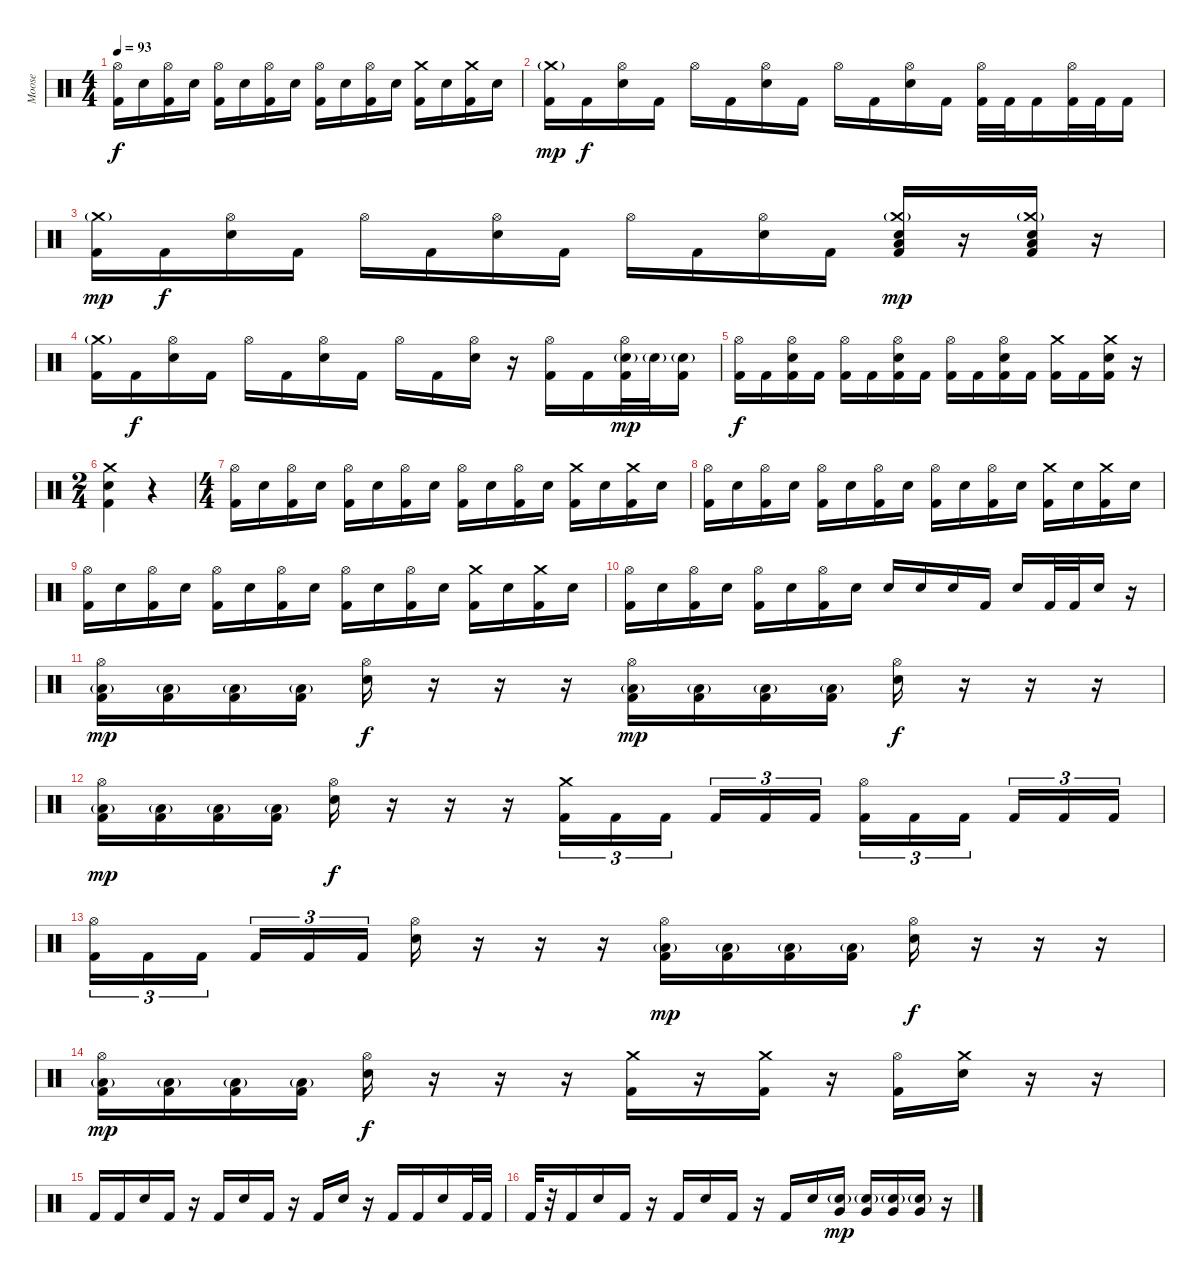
\track ("Moose" "Moose") {instrument percussion}
\staff {score}
\articulation defaults
\ts (4 4)
\tempo 93
\clef neutral
\ks c
("Hi-Hat (open)" "Kick (hit) 2").16{dy f} "Electric Snare (hit)".16 ("Hi-Hat (open)" "Kick (hit) 2").16 "Electric Snare (hit)".16 ("Hi-Hat (open)" "Kick (hit) 2").16 "Electric Snare (hit)".16 ("Hi-Hat (open)" "Kick (hit) 2").16 "Electric Snare (hit)".16 ("Hi-Hat (open)" "Kick (hit) 2").16 "Electric Snare (hit)".16 ("Hi-Hat (open)" "Kick (hit) 2").16 "Electric Snare (hit)".16 ("Crash medium (hit)" "Kick (hit) 2").16 "Electric Snare (hit)".16 ("Crash medium (hit)" "Kick (hit) 2").16 "Electric Snare (hit)".16 |
("Crash medium (hit)"{g} "Kick (hit) 2").16{dy mp} "Kick (hit) 2".16{dy f} ("Hi-Hat (open)" "Electric Snare (hit)").16 "Kick (hit) 2".16 "Hi-Hat (open)".16 "Kick (hit) 2".16 ("Hi-Hat (open)" "Electric Snare (hit)").16 "Kick (hit) 2".16 "Hi-Hat (open)".16 "Kick (hit) 2".16 ("Hi-Hat (open)" "Electric Snare (hit)").16 "Kick (hit) 2".16 ("Hi-Hat (open)" "Kick (hit) 2").32 "Kick (hit) 2".32 "Kick (hit) 2".16 ("Hi-Hat (open)" "Kick (hit) 2").32 "Kick (hit) 2".32 "Kick (hit) 2".16 |
("Crash medium (hit)"{g} "Kick (hit) 2").16{dy mp} "Kick (hit) 2".16{dy f} ("Hi-Hat (open)" "Electric Snare (hit)").16 "Kick (hit) 2".16 "Hi-Hat (open)".16 "Kick (hit) 2".16 ("Hi-Hat (open)" "Electric Snare (hit)").16 "Kick (hit) 2".16 "Hi-Hat (open)".16 "Kick (hit) 2".16 ("Hi-Hat (open)" "Electric Snare (hit)").16 "Kick (hit) 2".16 ("Crash medium (hit)"{g} "Low Floor Tom (hit)" "Electric Snare (hit)" "Kick (hit) 2").16{dy mp} r.16 ("Crash medium (hit)"{g} "Low Floor Tom (hit)" "Electric Snare (hit)" "Kick (hit) 2").16 r.16 |
("Crash medium (hit)"{g} "Kick (hit) 2").16 "Kick (hit) 2".16{dy f} ("Hi-Hat (open)" "Electric Snare (hit)").16 "Kick (hit) 2".16 "Hi-Hat (open)".16 "Kick (hit) 2".16 ("Hi-Hat (open)" "Electric Snare (hit)").16 "Kick (hit) 2".16 "Hi-Hat (open)".16 "Kick (hit) 2".16 ("Hi-Hat (open)" "Electric Snare (hit)").16 r.16 ("Hi-Hat (open)" "Kick (hit) 2").16 "Kick (hit) 2".16 ("Hi-Hat (open)" "Electric Snare (hit)"{g} "Kick (hit) 2").32{dy mp} "Electric Snare (hit)"{g}.32 ("Electric Snare (hit)"{g} "Kick (hit) 2").16 |
("Hi-Hat (open)" "Kick (hit) 2").16{dy f} "Kick (hit) 2".16 ("Hi-Hat (open)" "Electric Snare (hit)" "Kick (hit) 2").16 "Kick (hit) 2".16 ("Hi-Hat (open)" "Kick (hit) 2").16 "Kick (hit) 2".16 ("Hi-Hat (open)" "Electric Snare (hit)" "Kick (hit) 2").16 "Kick (hit) 2".16 ("Hi-Hat (open)" "Kick (hit) 2").16 "Kick (hit) 2".16 ("Hi-Hat (open)" "Electric Snare (hit)" "Kick (hit) 2").16 "Kick (hit) 2".16 ("Crash medium (hit)" "Kick (hit) 2").16 "Kick (hit) 2".16 ("Crash medium (hit)" "Electric Snare (hit)" "Kick (hit) 2").16 r.16 |
\ts (2 4)
("Crash medium (hit)" "Electric Snare (hit)" "Kick (hit) 2").4 r.4 |
\ts (4 4)
("Hi-Hat (open)" "Kick (hit) 2").16 "Electric Snare (hit)".16 ("Hi-Hat (open)" "Kick (hit) 2").16 "Electric Snare (hit)".16 ("Hi-Hat (open)" "Kick (hit) 2").16 "Electric Snare (hit)".16 ("Hi-Hat (open)" "Kick (hit) 2").16 "Electric Snare (hit)".16 ("Hi-Hat (open)" "Kick (hit) 2").16 "Electric Snare (hit)".16 ("Hi-Hat (open)" "Kick (hit) 2").16 "Electric Snare (hit)".16 ("Crash medium (hit)" "Kick (hit) 2").16 "Electric Snare (hit)".16 ("Crash medium (hit)" "Kick (hit) 2").16 "Electric Snare (hit)".16 |
("Hi-Hat (open)" "Kick (hit) 2").16 "Electric Snare (hit)".16 ("Hi-Hat (open)" "Kick (hit) 2").16 "Electric Snare (hit)".16 ("Hi-Hat (open)" "Kick (hit) 2").16 "Electric Snare (hit)".16 ("Hi-Hat (open)" "Kick (hit) 2").16 "Electric Snare (hit)".16 ("Hi-Hat (open)" "Kick (hit) 2").16 "Electric Snare (hit)".16 ("Hi-Hat (open)" "Kick (hit) 2").16 "Electric Snare (hit)".16 ("Crash medium (hit)" "Kick (hit) 2").16 "Electric Snare (hit)".16 ("Crash medium (hit)" "Kick (hit) 2").16 "Electric Snare (hit)".16 |
("Hi-Hat (open)" "Kick (hit) 2").16 "Electric Snare (hit)".16 ("Hi-Hat (open)" "Kick (hit) 2").16 "Electric Snare (hit)".16 ("Hi-Hat (open)" "Kick (hit) 2").16 "Electric Snare (hit)".16 ("Hi-Hat (open)" "Kick (hit) 2").16 "Electric Snare (hit)".16 ("Hi-Hat (open)" "Kick (hit) 2").16 "Electric Snare (hit)".16 ("Hi-Hat (open)" "Kick (hit) 2").16 "Electric Snare (hit)".16 ("Crash medium (hit)" "Kick (hit) 2").16 "Electric Snare (hit)".16 ("Crash medium (hit)" "Kick (hit) 2").16 "Electric Snare (hit)".16 |
("Hi-Hat (open)" "Kick (hit) 2").16 "Electric Snare (hit)".16 ("Hi-Hat (open)" "Kick (hit) 2").16 "Electric Snare (hit)".16 ("Hi-Hat (open)" "Kick (hit) 2").16 "Electric Snare (hit)".16 ("Hi-Hat (open)" "Kick (hit) 2").16 "Electric Snare (hit)".16 "Electric Snare (hit)".16 "Electric Snare (hit)".16 "Electric Snare (hit)".16 "Kick (hit) 2".16 "Electric Snare (hit)".16 "Kick (hit) 2".32 "Kick (hit) 2".32 "Electric Snare (hit)".16 r.16 |
("Hi-Hat (open)" "Low Floor Tom (hit)"{g} "Kick (hit) 2").16{dy mp} ("Low Floor Tom (hit)"{g} "Kick (hit) 2").16 ("Low Floor Tom (hit)"{g} "Kick (hit) 2").16 ("Low Floor Tom (hit)"{g} "Kick (hit) 2").16 ("Hi-Hat (open)" "Electric Snare (hit)").16{dy f} r.16 r.16 r.16 ("Hi-Hat (open)" "Low Floor Tom (hit)"{g} "Kick (hit) 2").16{dy mp} ("Low Floor Tom (hit)"{g} "Kick (hit) 2").16 ("Low Floor Tom (hit)"{g} "Kick (hit) 2").16 ("Low Floor Tom (hit)"{g} "Kick (hit) 2").16 ("Hi-Hat (open)" "Electric Snare (hit)").16{dy f} r.16 r.16 r.16 |
("Hi-Hat (open)" "Low Floor Tom (hit)"{g} "Kick (hit) 2").16{dy mp} ("Low Floor Tom (hit)"{g} "Kick (hit) 2").16 ("Low Floor Tom (hit)"{g} "Kick (hit) 2").16 ("Low Floor Tom (hit)"{g} "Kick (hit) 2").16 ("Hi-Hat (open)" "Electric Snare (hit)").16{dy f} r.16 r.16 r.16 ("Crash medium (hit)" "Kick (hit) 2").16{tu (3 2)} "Kick (hit) 2".16{tu (3 2)} "Kick (hit) 2".16{tu (3 2) beam splitsecondary} "Kick (hit) 2".16{tu (3 2)} "Kick (hit) 2".16{tu (3 2)} "Kick (hit) 2".16{tu (3 2)} ("Hi-Hat (open)" "Kick (hit) 2").16{tu (3 2)} "Kick (hit) 2".16{tu (3 2)} "Kick (hit) 2".16{tu (3 2) beam splitsecondary} "Kick (hit) 2".16{tu (3 2)} "Kick (hit) 2".16{tu (3 2)} "Kick (hit) 2".16{tu (3 2)} |
("Hi-Hat (open)" "Kick (hit) 2").16{tu (3 2)} "Kick (hit) 2".16{tu (3 2)} "Kick (hit) 2".16{tu (3 2) beam splitsecondary} "Kick (hit) 2".16{tu (3 2)} "Kick (hit) 2".16{tu (3 2)} "Kick (hit) 2".16{tu (3 2)} ("Hi-Hat (open)" "Electric Snare (hit)").16 r.16 r.16 r.16 ("Hi-Hat (open)" "Low Floor Tom (hit)"{g} "Kick (hit) 2").16{dy mp} ("Low Floor Tom (hit)"{g} "Kick (hit) 2").16 ("Low Floor Tom (hit)"{g} "Kick (hit) 2").16 ("Low Floor Tom (hit)"{g} "Kick (hit) 2").16 ("Hi-Hat (open)" "Electric Snare (hit)").16{dy f} r.16 r.16 r.16 |
("Hi-Hat (open)" "Low Floor Tom (hit)"{g} "Kick (hit) 2").16{dy mp} ("Low Floor Tom (hit)"{g} "Kick (hit) 2").16 ("Low Floor Tom (hit)"{g} "Kick (hit) 2").16 ("Low Floor Tom (hit)"{g} "Kick (hit) 2").16 ("Hi-Hat (open)" "Electric Snare (hit)").16{dy f} r.16 r.16 r.16 ("Crash medium (hit)" "Kick (hit) 2").16 r.16 ("Crash medium (hit)" "Kick (hit) 2").16 r.16 ("Hi-Hat (open)" "Kick (hit) 2").16 ("Crash medium (hit)" "Electric Snare (hit)").16 r.16 r.16 |
"Kick (hit) 2".16 "Kick (hit) 2".16 "Electric Snare (hit)".16 "Kick (hit) 2".16 r.16 "Kick (hit) 2".16 "Electric Snare (hit)".16 "Kick (hit) 2".16 r.16 "Kick (hit) 2".16 "Electric Snare (hit)".16 r.16 "Kick (hit) 2".16 "Kick (hit) 2".16 "Electric Snare (hit)".16 "Kick (hit) 2".32 "Kick (hit) 2".32 |
"Kick (hit) 2".32 r.32 "Kick (hit) 2".16 "Electric Snare (hit)".16 "Kick (hit) 2".16 r.16 "Kick (hit) 2".16 "Electric Snare (hit)".16 "Kick (hit) 2".16 r.16 "Kick (hit) 2".16 "Electric Snare (hit)".16 ("Very Low Tom (hit)" "Electric Snare (hit)"{g}).16{dy mp} ("Very Low Tom (hit)" "Electric Snare (hit)"{g}).16 ("Very Low Tom (hit)" "Electric Snare (hit)"{g}).16 ("Very Low Tom (hit)" "Electric Snare (hit)"{g}).16 r.16
